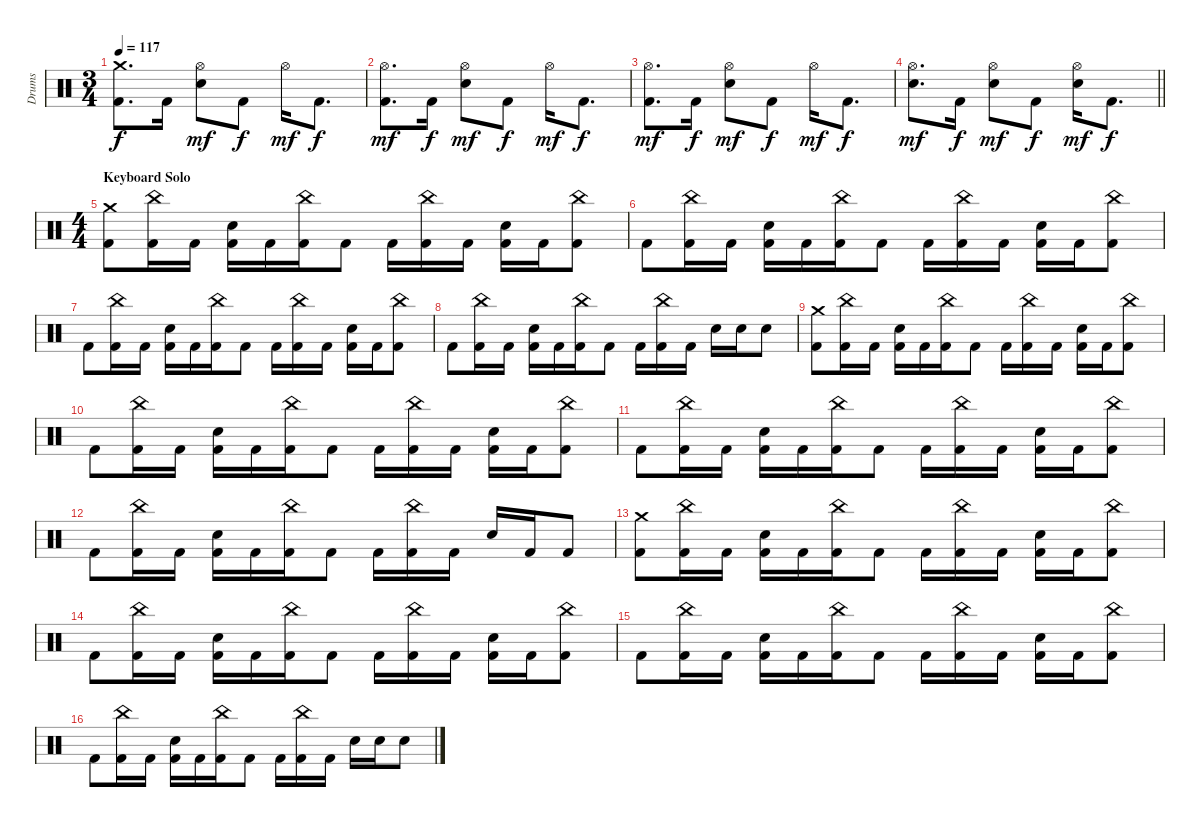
\track ("Drums" "Drums") {instrument percussion}
\staff {score}
\articulation defaults
\ts (3 4)
\tempo 117
\clef neutral
\ks c
("Kick (hit) 2" "Crash medium (hit)").8{d dy f} "Kick (hit) 2".16 ("Hi-Hat (open)" "Electric Snare (hit)").8{dy mf} "Kick (hit) 2".8{dy f} "Hi-Hat (open)".16{dy mf} "Kick (hit) 2".8{d dy f} |
("Kick (hit) 2" "Hi-Hat (open)").8{d dy mf} "Kick (hit) 2".16{dy f} ("Hi-Hat (open)" "Electric Snare (hit)").8{dy mf} "Kick (hit) 2".8{dy f} "Hi-Hat (open)".16{dy mf} "Kick (hit) 2".8{d dy f} |
("Kick (hit) 2" "Hi-Hat (open)").8{d dy mf} "Kick (hit) 2".16{dy f} ("Hi-Hat (open)" "Electric Snare (hit)").8{dy mf} "Kick (hit) 2".8{dy f} "Hi-Hat (open)".16{dy mf} "Kick (hit) 2".8{d dy f} |
\barLineRight lightlight
("Hi-Hat (open)" "Electric Snare (hit)").8{d dy mf} "Kick (hit) 2".16{dy f} ("Hi-Hat (open)" "Electric Snare (hit)").8{dy mf} "Kick (hit) 2".8{dy f} ("Hi-Hat (open)" "Electric Snare (hit)").16{dy mf} "Kick (hit) 2".8{d dy f} |
\ts (4 4)
\section ("" "Keyboard Solo")
("Kick (hit) 2" "Crash medium (hit)").8 ("Kick (hit) 2" "China (hit)").16 "Kick (hit) 2".16 ("Kick (hit) 2" "Electric Snare (hit)").16 "Kick (hit) 2".16 ("Kick (hit) 2" "China (hit)").16 "Kick (hit) 2".8 "Kick (hit) 2".16 ("Kick (hit) 2" "China (hit)").16 "Kick (hit) 2".16 ("Kick (hit) 2" "Electric Snare (hit)").16 "Kick (hit) 2".16 ("Kick (hit) 2" "China (hit)").8 |
"Kick (hit) 2".8 ("Kick (hit) 2" "China (hit)").16 "Kick (hit) 2".16 ("Kick (hit) 2" "Electric Snare (hit)").16 "Kick (hit) 2".16 ("Kick (hit) 2" "China (hit)").16 "Kick (hit) 2".8 "Kick (hit) 2".16 ("Kick (hit) 2" "China (hit)").16 "Kick (hit) 2".16 ("Kick (hit) 2" "Electric Snare (hit)").16 "Kick (hit) 2".16 ("Kick (hit) 2" "China (hit)").8 |
"Kick (hit) 2".8 ("Kick (hit) 2" "China (hit)").16 "Kick (hit) 2".16 ("Kick (hit) 2" "Electric Snare (hit)").16 "Kick (hit) 2".16 ("Kick (hit) 2" "China (hit)").16 "Kick (hit) 2".8 "Kick (hit) 2".16 ("Kick (hit) 2" "China (hit)").16 "Kick (hit) 2".16 ("Kick (hit) 2" "Electric Snare (hit)").16 "Kick (hit) 2".16 ("Kick (hit) 2" "China (hit)").8 |
"Kick (hit) 2".8 ("Kick (hit) 2" "China (hit)").16 "Kick (hit) 2".16 ("Kick (hit) 2" "Electric Snare (hit)").16 "Kick (hit) 2".16 ("Kick (hit) 2" "China (hit)").16 "Kick (hit) 2".8 "Kick (hit) 2".16 ("Kick (hit) 2" "China (hit)").16 "Kick (hit) 2".16 "Electric Snare (hit)".16 "Electric Snare (hit)".16 "Electric Snare (hit)".8 |
("Kick (hit) 2" "Crash medium (hit)").8 ("Kick (hit) 2" "China (hit)").16 "Kick (hit) 2".16 ("Kick (hit) 2" "Electric Snare (hit)").16 "Kick (hit) 2".16 ("Kick (hit) 2" "China (hit)").16 "Kick (hit) 2".8 "Kick (hit) 2".16 ("Kick (hit) 2" "China (hit)").16 "Kick (hit) 2".16 ("Kick (hit) 2" "Electric Snare (hit)").16 "Kick (hit) 2".16 ("Kick (hit) 2" "China (hit)").8 |
"Kick (hit) 2".8 ("Kick (hit) 2" "China (hit)").16 "Kick (hit) 2".16 ("Kick (hit) 2" "Electric Snare (hit)").16 "Kick (hit) 2".16 ("Kick (hit) 2" "China (hit)").16 "Kick (hit) 2".8 "Kick (hit) 2".16 ("Kick (hit) 2" "China (hit)").16 "Kick (hit) 2".16 ("Kick (hit) 2" "Electric Snare (hit)").16 "Kick (hit) 2".16 ("Kick (hit) 2" "China (hit)").8 |
"Kick (hit) 2".8 ("Kick (hit) 2" "China (hit)").16 "Kick (hit) 2".16 ("Kick (hit) 2" "Electric Snare (hit)").16 "Kick (hit) 2".16 ("Kick (hit) 2" "China (hit)").16 "Kick (hit) 2".8 "Kick (hit) 2".16 ("Kick (hit) 2" "China (hit)").16 "Kick (hit) 2".16 ("Kick (hit) 2" "Electric Snare (hit)").16 "Kick (hit) 2".16 ("Kick (hit) 2" "China (hit)").8 |
"Kick (hit) 2".8 ("Kick (hit) 2" "China (hit)").16 "Kick (hit) 2".16 ("Kick (hit) 2" "Electric Snare (hit)").16 "Kick (hit) 2".16 ("Kick (hit) 2" "China (hit)").16 "Kick (hit) 2".8 "Kick (hit) 2".16 ("Kick (hit) 2" "China (hit)").16 "Kick (hit) 2".16 "Electric Snare (hit)".16 "Kick (hit) 2".16 "Kick (hit) 2".8 |
("Kick (hit) 2" "Crash medium (hit)").8 ("Kick (hit) 2" "China (hit)").16 "Kick (hit) 2".16 ("Kick (hit) 2" "Electric Snare (hit)").16 "Kick (hit) 2".16 ("Kick (hit) 2" "China (hit)").16 "Kick (hit) 2".8 "Kick (hit) 2".16 ("Kick (hit) 2" "China (hit)").16 "Kick (hit) 2".16 ("Kick (hit) 2" "Electric Snare (hit)").16 "Kick (hit) 2".16 ("Kick (hit) 2" "China (hit)").8 |
"Kick (hit) 2".8 ("Kick (hit) 2" "China (hit)").16 "Kick (hit) 2".16 ("Kick (hit) 2" "Electric Snare (hit)").16 "Kick (hit) 2".16 ("Kick (hit) 2" "China (hit)").16 "Kick (hit) 2".8 "Kick (hit) 2".16 ("Kick (hit) 2" "China (hit)").16 "Kick (hit) 2".16 ("Kick (hit) 2" "Electric Snare (hit)").16 "Kick (hit) 2".16 ("Kick (hit) 2" "China (hit)").8 |
"Kick (hit) 2".8 ("Kick (hit) 2" "China (hit)").16 "Kick (hit) 2".16 ("Kick (hit) 2" "Electric Snare (hit)").16 "Kick (hit) 2".16 ("Kick (hit) 2" "China (hit)").16 "Kick (hit) 2".8 "Kick (hit) 2".16 ("Kick (hit) 2" "China (hit)").16 "Kick (hit) 2".16 ("Kick (hit) 2" "Electric Snare (hit)").16 "Kick (hit) 2".16 ("Kick (hit) 2" "China (hit)").8 |
"Kick (hit) 2".8 ("Kick (hit) 2" "China (hit)").16 "Kick (hit) 2".16 ("Kick (hit) 2" "Electric Snare (hit)").16 "Kick (hit) 2".16 ("Kick (hit) 2" "China (hit)").16 "Kick (hit) 2".8 "Kick (hit) 2".16 ("Kick (hit) 2" "China (hit)").16 "Kick (hit) 2".16 "Electric Snare (hit)".16 "Electric Snare (hit)".16 "Electric Snare (hit)".8
